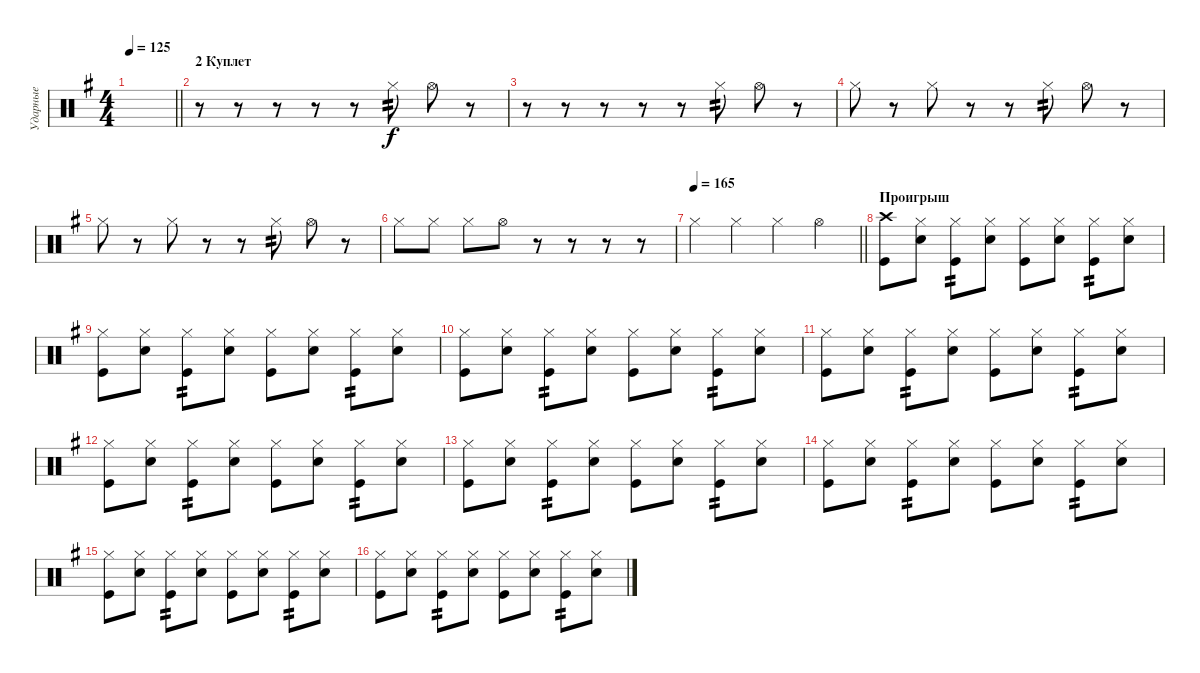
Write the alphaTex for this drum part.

\track ("Ударные" "Ударные") {instrument percussion}
\staff {score}
\articulation defaults
\ts (4 4)
\tempo 125
\clef neutral
\barLineRight lightlight
\ks eminor
|
\section ("" "2 Куплет")
r.8 r.8 r.8 r.8 r.8 "Hi-Hat (closed)".8{tp 2} "Hi-Hat (open)".8 r.8 |
r.8 r.8 r.8 r.8 r.8 "Hi-Hat (closed)".8{tp 2} "Hi-Hat (open)".8 r.8 |
"Hi-Hat (closed)".8 r.8 "Hi-Hat (closed)".8 r.8 r.8 "Hi-Hat (closed)".8{tp 2} "Hi-Hat (open)".8 r.8 |
"Hi-Hat (closed)".8 r.8 "Hi-Hat (closed)".8 r.8 r.8 "Hi-Hat (closed)".8{tp 2} "Hi-Hat (open)".8 r.8 |
"Hi-Hat (closed)".8 "Hi-Hat (closed)".8 "Hi-Hat (closed)".8 "Hi-Hat (open)".8 r.8 r.8 r.8 r.8 |
\tempo 165
\barLineRight lightlight "Hi-Hat (closed)".4 "Hi-Hat (closed)".4 "Hi-Hat (closed)".4 "Hi-Hat (open)".4
|
\section ("" "Проигрыш")
("Crash high (hit)" "Kick (hit)").8 ("Hi-Hat (closed)" "Electric Snare (hit)").8 ("Hi-Hat (closed)" "Kick (hit)").8{tp 2} ("Hi-Hat (closed)" "Electric Snare (hit)").8 ("Hi-Hat (closed)" "Kick (hit)").8 ("Hi-Hat (closed)" "Electric Snare (hit)").8 ("Hi-Hat (closed)" "Kick (hit)").8{tp 2} ("Hi-Hat (closed)" "Electric Snare (hit)").8 |
("Hi-Hat (closed)" "Kick (hit)").8 ("Hi-Hat (closed)" "Electric Snare (hit)").8 ("Hi-Hat (closed)" "Kick (hit)").8{tp 2} ("Hi-Hat (closed)" "Electric Snare (hit)").8 ("Hi-Hat (closed)" "Kick (hit)").8 ("Hi-Hat (closed)" "Electric Snare (hit)").8 ("Hi-Hat (closed)" "Kick (hit)").8{tp 2} ("Hi-Hat (closed)" "Electric Snare (hit)").8 |
("Hi-Hat (closed)" "Kick (hit)").8 ("Hi-Hat (closed)" "Electric Snare (hit)").8 ("Hi-Hat (closed)" "Kick (hit)").8{tp 2} ("Hi-Hat (closed)" "Electric Snare (hit)").8 ("Hi-Hat (closed)" "Kick (hit)").8 ("Hi-Hat (closed)" "Electric Snare (hit)").8 ("Hi-Hat (closed)" "Kick (hit)").8{tp 2} ("Hi-Hat (closed)" "Electric Snare (hit)").8 |
("Hi-Hat (closed)" "Kick (hit)").8 ("Hi-Hat (closed)" "Electric Snare (hit)").8 ("Hi-Hat (closed)" "Kick (hit)").8{tp 2} ("Hi-Hat (closed)" "Electric Snare (hit)").8 ("Hi-Hat (closed)" "Kick (hit)").8 ("Hi-Hat (closed)" "Electric Snare (hit)").8 ("Hi-Hat (closed)" "Kick (hit)").8{tp 2} ("Hi-Hat (closed)" "Electric Snare (hit)").8 |
("Hi-Hat (closed)" "Kick (hit)").8 ("Hi-Hat (closed)" "Electric Snare (hit)").8 ("Hi-Hat (closed)" "Kick (hit)").8{tp 2} ("Hi-Hat (closed)" "Electric Snare (hit)").8 ("Hi-Hat (closed)" "Kick (hit)").8 ("Hi-Hat (closed)" "Electric Snare (hit)").8 ("Hi-Hat (closed)" "Kick (hit)").8{tp 2} ("Hi-Hat (closed)" "Electric Snare (hit)").8 |
("Hi-Hat (closed)" "Kick (hit)").8 ("Hi-Hat (closed)" "Electric Snare (hit)").8 ("Hi-Hat (closed)" "Kick (hit)").8{tp 2} ("Hi-Hat (closed)" "Electric Snare (hit)").8 ("Hi-Hat (closed)" "Kick (hit)").8 ("Hi-Hat (closed)" "Electric Snare (hit)").8 ("Hi-Hat (closed)" "Kick (hit)").8{tp 2} ("Hi-Hat (closed)" "Electric Snare (hit)").8 |
("Hi-Hat (closed)" "Kick (hit)").8 ("Hi-Hat (closed)" "Electric Snare (hit)").8 ("Hi-Hat (closed)" "Kick (hit)").8{tp 2} ("Hi-Hat (closed)" "Electric Snare (hit)").8 ("Hi-Hat (closed)" "Kick (hit)").8 ("Hi-Hat (closed)" "Electric Snare (hit)").8 ("Hi-Hat (closed)" "Kick (hit)").8{tp 2} ("Hi-Hat (closed)" "Electric Snare (hit)").8 |
("Hi-Hat (closed)" "Kick (hit)").8 ("Hi-Hat (closed)" "Electric Snare (hit)").8 ("Hi-Hat (closed)" "Kick (hit)").8{tp 2} ("Hi-Hat (closed)" "Electric Snare (hit)").8 ("Hi-Hat (closed)" "Kick (hit)").8 ("Hi-Hat (closed)" "Electric Snare (hit)").8 ("Hi-Hat (closed)" "Kick (hit)").8{tp 2} ("Hi-Hat (closed)" "Electric Snare (hit)").8 |
("Hi-Hat (closed)" "Kick (hit)").8 ("Hi-Hat (closed)" "Electric Snare (hit)").8 ("Hi-Hat (closed)" "Kick (hit)").8{tp 2} ("Hi-Hat (closed)" "Electric Snare (hit)").8 ("Hi-Hat (closed)" "Kick (hit)").8 ("Hi-Hat (closed)" "Electric Snare (hit)").8 ("Hi-Hat (closed)" "Kick (hit)").8{tp 2} ("Hi-Hat (closed)" "Electric Snare (hit)").8
